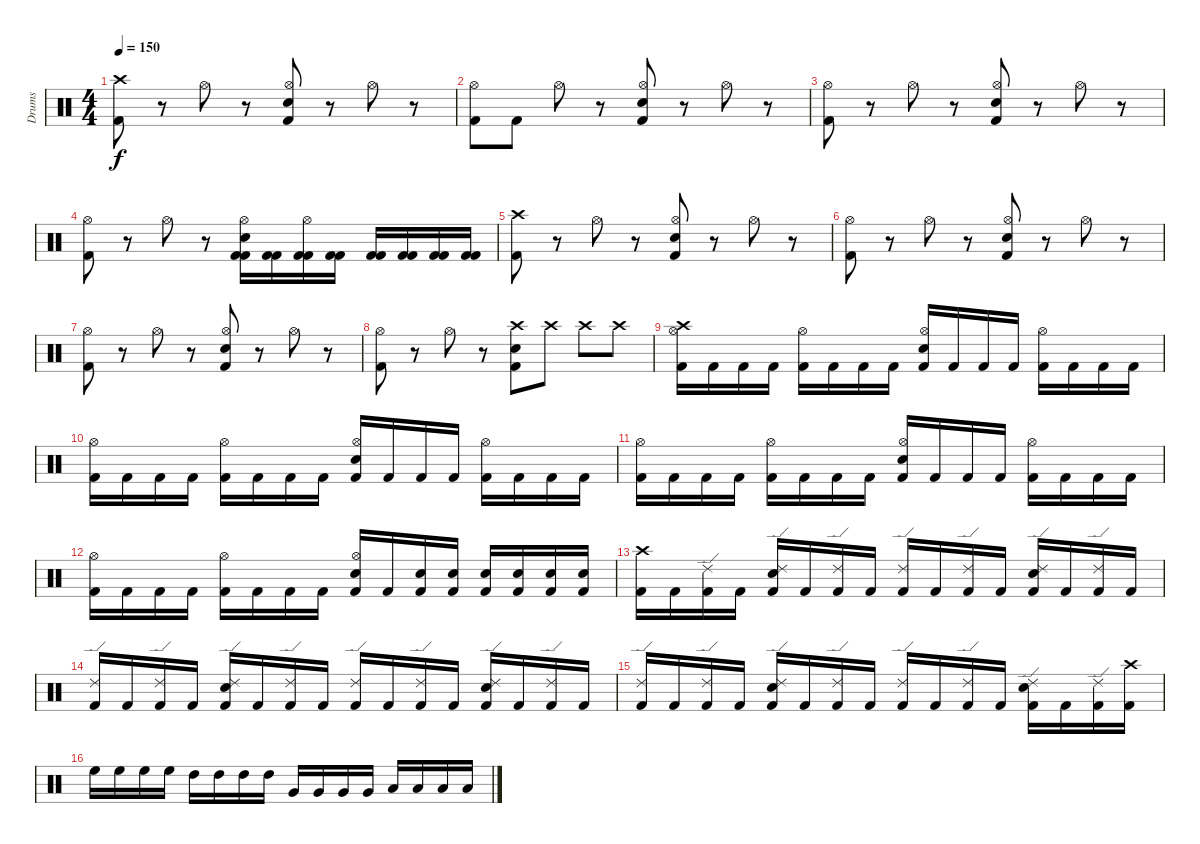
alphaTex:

\track ("Drums" "Drums") {instrument percussion}
\staff {score}
\articulation defaults
\ts (4 4)
\tempo 150
\clef neutral
\ks c
("Crash high (hit)" "Kick (hit) 2").8{dy f} r.8 "Hi-Hat (open)".8 r.8 ("Snare (hit) 2" "Hi-Hat (open)" "Kick (hit) 2").8 r.8 "Hi-Hat (open)".8 r.8 |
("Hi-Hat (open)" "Kick (hit) 2").8 "Kick (hit) 2".8 "Hi-Hat (open)".8 r.8 ("Snare (hit) 2" "Hi-Hat (open)" "Kick (hit) 2").8 r.8 "Hi-Hat (open)".8 r.8 |
("Hi-Hat (open)" "Kick (hit) 2").8 r.8 "Hi-Hat (open)".8 r.8 ("Snare (hit) 2" "Hi-Hat (open)" "Kick (hit) 2").8 r.8 "Hi-Hat (open)".8 r.8 |
("Hi-Hat (open)" "Kick (hit) 2").8 r.8 "Hi-Hat (open)".8 r.8 ("Snare (hit) 2" "Hi-Hat (open)" "Kick (hit) 2" "Kick (hit) 2").16 ("Kick (hit) 2" "Kick (hit) 2").16 ("Hi-Hat (open)" "Kick (hit) 2" "Kick (hit) 2").16 ("Kick (hit) 2" "Kick (hit) 2").16 ("Kick (hit) 2" "Kick (hit) 2").16 ("Kick (hit) 2" "Kick (hit) 2").16 ("Kick (hit) 2" "Kick (hit) 2").16 ("Kick (hit) 2" "Kick (hit) 2").16 |
("Crash high (hit)" "Kick (hit) 2").8 r.8 "Hi-Hat (open)".8 r.8 ("Snare (hit) 2" "Hi-Hat (open)" "Kick (hit) 2").8 r.8 "Hi-Hat (open)".8 r.8 |
("Hi-Hat (open)" "Kick (hit) 2").8 r.8 "Hi-Hat (open)".8 r.8 ("Snare (hit) 2" "Hi-Hat (open)" "Kick (hit) 2").8 r.8 "Hi-Hat (open)".8 r.8 |
("Hi-Hat (open)" "Kick (hit) 2").8 r.8 "Hi-Hat (open)".8 r.8 ("Snare (hit) 2" "Hi-Hat (open)" "Kick (hit) 2").8 r.8 "Hi-Hat (open)".8 r.8 |
("Hi-Hat (open)" "Kick (hit) 2").8 r.8 "Hi-Hat (open)".8 r.8 ("Snare (hit) 2" "Crash high (hit)" "Kick (hit) 2").8 "Crash high (hit)".8 "Crash high (hit)".8 "Crash high (hit)".8 |
("Crash high (hit)" "Hi-Hat (open)" "Kick (hit) 2").16 "Kick (hit) 2".16 "Kick (hit) 2".16 "Kick (hit) 2".16 ("Hi-Hat (open)" "Kick (hit) 2").16 "Kick (hit) 2".16 "Kick (hit) 2".16 "Kick (hit) 2".16 ("Snare (hit) 2" "Hi-Hat (open)" "Kick (hit) 2").16 "Kick (hit) 2".16 "Kick (hit) 2".16 "Kick (hit) 2".16 ("Hi-Hat (open)" "Kick (hit) 2").16 "Kick (hit) 2".16 "Kick (hit) 2".16 "Kick (hit) 2".16 |
("Hi-Hat (open)" "Kick (hit) 2").16 "Kick (hit) 2".16 "Kick (hit) 2".16 "Kick (hit) 2".16 ("Hi-Hat (open)" "Kick (hit) 2").16 "Kick (hit) 2".16 "Kick (hit) 2".16 "Kick (hit) 2".16 ("Snare (hit) 2" "Hi-Hat (open)" "Kick (hit) 2").16 "Kick (hit) 2".16 "Kick (hit) 2".16 "Kick (hit) 2".16 ("Hi-Hat (open)" "Kick (hit) 2").16 "Kick (hit) 2".16 "Kick (hit) 2".16 "Kick (hit) 2".16 |
("Hi-Hat (open)" "Kick (hit) 2").16 "Kick (hit) 2".16 "Kick (hit) 2".16 "Kick (hit) 2".16 ("Hi-Hat (open)" "Kick (hit) 2").16 "Kick (hit) 2".16 "Kick (hit) 2".16 "Kick (hit) 2".16 ("Snare (hit) 2" "Hi-Hat (open)" "Kick (hit) 2").16 "Kick (hit) 2".16 "Kick (hit) 2".16 "Kick (hit) 2".16 ("Hi-Hat (open)" "Kick (hit) 2").16 "Kick (hit) 2".16 "Kick (hit) 2".16 "Kick (hit) 2".16 |
("Hi-Hat (open)" "Kick (hit) 2").16 "Kick (hit) 2".16 "Kick (hit) 2".16 "Kick (hit) 2".16 ("Hi-Hat (open)" "Kick (hit) 2").16 "Kick (hit) 2".16 "Kick (hit) 2".16 "Kick (hit) 2".16 ("Snare (hit) 2" "Hi-Hat (open)" "Kick (hit) 2").16 "Kick (hit) 2".16 ("Snare (hit) 2" "Kick (hit) 2").16 ("Snare (hit) 2" "Kick (hit) 2").16 ("Snare (hit) 2" "Kick (hit) 2").16 ("Snare (hit) 2" "Kick (hit) 2").16 ("Snare (hit) 2" "Kick (hit) 2").16 ("Snare (hit) 2" "Kick (hit) 2").16 |
("Crash high (hit)" "Kick (hit) 2").16 "Kick (hit) 2".16 ("Ride (edge) 2" "Kick (hit) 2").16 "Kick (hit) 2".16 ("Snare (hit) 2" "Ride (edge) 2" "Kick (hit) 2").16 "Kick (hit) 2".16 ("Ride (edge) 2" "Kick (hit) 2").16 "Kick (hit) 2".16 ("Ride (edge) 2" "Kick (hit) 2").16 "Kick (hit) 2".16 ("Ride (edge) 2" "Kick (hit) 2").16 "Kick (hit) 2".16 ("Snare (hit) 2" "Ride (edge) 2" "Kick (hit) 2").16 "Kick (hit) 2".16 ("Ride (edge) 2" "Kick (hit) 2").16 "Kick (hit) 2".16 |
("Ride (edge) 2" "Kick (hit) 2").16 "Kick (hit) 2".16 ("Ride (edge) 2" "Kick (hit) 2").16 "Kick (hit) 2".16 ("Snare (hit) 2" "Ride (edge) 2" "Kick (hit) 2").16 "Kick (hit) 2".16 ("Ride (edge) 2" "Kick (hit) 2").16 "Kick (hit) 2".16 ("Ride (edge) 2" "Kick (hit) 2").16 "Kick (hit) 2".16 ("Ride (edge) 2" "Kick (hit) 2").16 "Kick (hit) 2".16 ("Snare (hit) 2" "Ride (edge) 2" "Kick (hit) 2").16 "Kick (hit) 2".16 ("Ride (edge) 2" "Kick (hit) 2").16 "Kick (hit) 2".16 |
("Ride (edge) 2" "Kick (hit) 2").16 "Kick (hit) 2".16 ("Ride (edge) 2" "Kick (hit) 2").16 "Kick (hit) 2".16 ("Snare (hit) 2" "Ride (edge) 2" "Kick (hit) 2").16 "Kick (hit) 2".16 ("Ride (edge) 2" "Kick (hit) 2").16 "Kick (hit) 2".16 ("Ride (edge) 2" "Kick (hit) 2").16 "Kick (hit) 2".16 ("Ride (edge) 2" "Kick (hit) 2").16 "Kick (hit) 2".16 ("Snare (hit) 2" "Ride (edge) 2" "Kick (hit) 2").16 "Kick (hit) 2".16 ("Ride (edge) 2" "Kick (hit) 2").16 ("Crash high (hit)" "Kick (hit) 2").16 |
"High Floor Tom (hit)".16 "High Floor Tom (hit)".16 "High Floor Tom (hit)".16 "High Floor Tom (hit)".16 "High Tom (hit)".16 "High Tom (hit)".16 "High Tom (hit)".16 "High Tom (hit)".16 "Very Low Tom (hit)".16 "Very Low Tom (hit)".16 "Very Low Tom (hit)".16 "Very Low Tom (hit)".16 "Low Tom (hit)".16 "Low Tom (hit)".16 "Low Tom (hit)".16 "Low Tom (hit)".16
